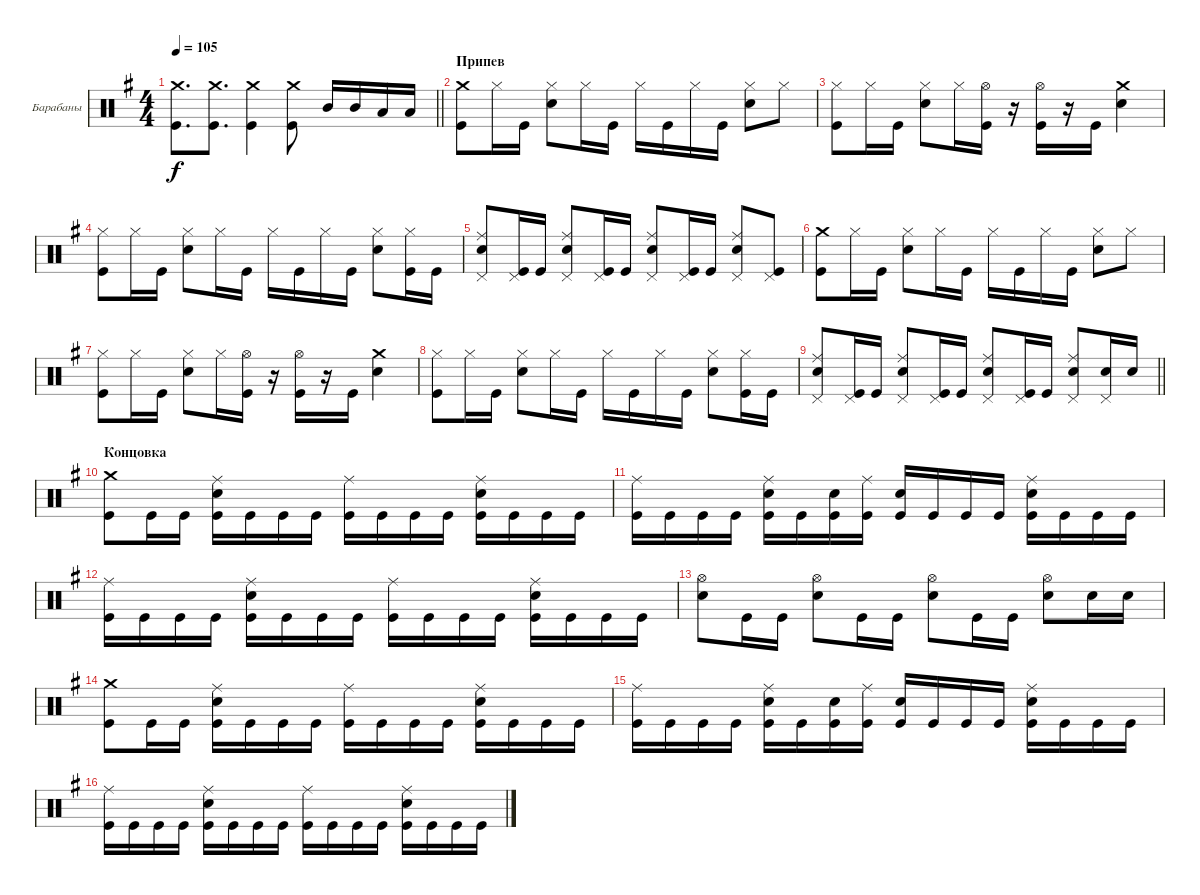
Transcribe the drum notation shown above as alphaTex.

\bracketExtendMode groupsimilarinstruments
\firstSystemTrackNameMode fullname
\otherSystemsTrackNameMode fullname
\firstSystemTrackNameOrientation horizontal
\otherSystemsTrackNameOrientation horizontal
\chordDiagramsInScore
\track ("Барабаны" "Drums") {instrument percussion}
\staff {score}
\articulation defaults
\ts (4 4)
\tempo 105
\clef neutral
\barLineRight lightlight
\ks eminor
("Kick (hit)" "Crash medium (hit)").8{d dy f} ("Kick (hit)" "Crash medium (hit)").8{d} ("Kick (hit)" "Crash medium (hit)").4 ("Kick (hit)" "Crash medium (hit)").8 "Mid Tom (hit)".16 "Mid Tom (hit)".16 "Low Tom (hit)".16 "Low Tom (hit)".16 |
\section ("" "Припев")
("Kick (hit)" "Crash medium (hit)").8 "Hi-Hat (closed)".16 "Kick (hit)".16 ("Snare (hit) 2" "Hi-Hat (closed)").8 "Hi-Hat (closed)".16 "Kick (hit)".16 "Hi-Hat (closed)".16 "Kick (hit)".16 "Hi-Hat (closed)".16 "Kick (hit)".16 ("Snare (hit) 2" "Hi-Hat (closed)").8 "Hi-Hat (closed)".8 |
("Kick (hit)" "Hi-Hat (closed)").8 "Hi-Hat (closed)".16 "Kick (hit)".16 ("Snare (hit) 2" "Hi-Hat (closed)").8 "Hi-Hat (closed)".16 ("Kick (hit)" "Hi-Hat (open)").16 r.16 ("Kick (hit)" "Hi-Hat (open)").16 r.16 "Kick (hit)".16 ("Snare (hit) 2" "Crash medium (hit)").4 |
("Kick (hit)" "Hi-Hat (closed)").8 "Hi-Hat (closed)".16 "Kick (hit)".16 ("Snare (hit) 2" "Hi-Hat (closed)").8 "Hi-Hat (closed)".16 "Kick (hit)".16 "Hi-Hat (closed)".16 "Kick (hit)".16 "Hi-Hat (closed)".16 "Kick (hit)".16 ("Snare (hit) 2" "Hi-Hat (closed)").8 ("Hi-Hat (closed)" "Kick (hit)").16 "Kick (hit)".16 |
("Snare (hit) 2" "Ride (middle)" "Pedal Hi-Hat (hit)").8 ("Kick (hit)" "Pedal Hi-Hat (hit)").16 "Kick (hit)".16 ("Snare (hit) 2" "Ride (middle)" "Pedal Hi-Hat (hit)").8 ("Kick (hit)" "Pedal Hi-Hat (hit)").16 "Kick (hit)".16 ("Snare (hit) 2" "Ride (middle)" "Pedal Hi-Hat (hit)").8 ("Kick (hit)" "Pedal Hi-Hat (hit)").16 "Kick (hit)".16 ("Snare (hit) 2" "Ride (middle)" "Pedal Hi-Hat (hit)").8 ("Pedal Hi-Hat (hit)" "Kick (hit)").8 |
("Kick (hit)" "Crash medium (hit)").8 "Hi-Hat (closed)".16 "Kick (hit)".16 ("Snare (hit) 2" "Hi-Hat (closed)").8 "Hi-Hat (closed)".16 "Kick (hit)".16 "Hi-Hat (closed)".16 "Kick (hit)".16 "Hi-Hat (closed)".16 "Kick (hit)".16 ("Snare (hit) 2" "Hi-Hat (closed)").8 "Hi-Hat (closed)".8 |
("Kick (hit)" "Hi-Hat (closed)").8 "Hi-Hat (closed)".16 "Kick (hit)".16 ("Snare (hit) 2" "Hi-Hat (closed)").8 "Hi-Hat (closed)".16 ("Kick (hit)" "Hi-Hat (open)").16 r.16 ("Kick (hit)" "Hi-Hat (open)").16 r.16 "Kick (hit)".16 ("Snare (hit) 2" "Crash medium (hit)").4 |
("Kick (hit)" "Hi-Hat (closed)").8 "Hi-Hat (closed)".16 "Kick (hit)".16 ("Snare (hit) 2" "Hi-Hat (closed)").8 "Hi-Hat (closed)".16 "Kick (hit)".16 "Hi-Hat (closed)".16 "Kick (hit)".16 "Hi-Hat (closed)".16 "Kick (hit)".16 ("Snare (hit) 2" "Hi-Hat (closed)").8 ("Hi-Hat (closed)" "Kick (hit)").16 "Kick (hit)".16 |
\barLineRight lightlight
("Snare (hit) 2" "Ride (middle)" "Pedal Hi-Hat (hit)").8 ("Kick (hit)" "Pedal Hi-Hat (hit)").16 "Kick (hit)".16 ("Snare (hit) 2" "Ride (middle)" "Pedal Hi-Hat (hit)").8 ("Kick (hit)" "Pedal Hi-Hat (hit)").16 "Kick (hit)".16 ("Snare (hit) 2" "Ride (middle)" "Pedal Hi-Hat (hit)").8 ("Kick (hit)" "Pedal Hi-Hat (hit)").16 "Kick (hit)".16 ("Snare (hit) 2" "Ride (middle)" "Pedal Hi-Hat (hit)").8 ("Pedal Hi-Hat (hit)" "Snare (hit) 2").16 "Snare (hit) 2".16 |
\section ("" "Концовка")
("Kick (hit)" "Crash medium (hit)").8 "Kick (hit)".16 "Kick (hit)".16 ("Kick (hit)" "Snare (hit) 2" "Ride (middle)").16 "Kick (hit)".16 "Kick (hit)".16 "Kick (hit)".16 ("Kick (hit)" "Ride (middle)").16 "Kick (hit)".16 "Kick (hit)".16 "Kick (hit)".16 ("Kick (hit)" "Snare (hit) 2" "Ride (middle)").16 "Kick (hit)".16 "Kick (hit)".16 "Kick (hit)".16 |
("Kick (hit)" "Ride (middle)").16 "Kick (hit)".16 "Kick (hit)".16 "Kick (hit)".16 ("Kick (hit)" "Snare (hit) 2" "Ride (middle)").16 "Kick (hit)".16 ("Kick (hit)" "Snare (hit) 2").16 ("Kick (hit)" "Ride (middle)").16 ("Kick (hit)" "Snare (hit) 2").16 "Kick (hit)".16 "Kick (hit)".16 "Kick (hit)".16 ("Kick (hit)" "Snare (hit) 2" "Ride (middle)").16 "Kick (hit)".16 "Kick (hit)".16 "Kick (hit)".16 |
("Kick (hit)" "Ride (middle)").16 "Kick (hit)".16 "Kick (hit)".16 "Kick (hit)".16 ("Kick (hit)" "Snare (hit) 2" "Ride (middle)").16 "Kick (hit)".16 "Kick (hit)".16 "Kick (hit)".16 ("Kick (hit)" "Ride (middle)").16 "Kick (hit)".16 "Kick (hit)".16 "Kick (hit)".16 ("Kick (hit)" "Snare (hit) 2" "Ride (middle)").16 "Kick (hit)".16 "Kick (hit)".16 "Kick (hit)".16 |
("Snare (hit) 2" "Hi-Hat (open)").8 "Kick (hit)".16 "Kick (hit)".16 ("Snare (hit) 2" "Hi-Hat (open)").8 "Kick (hit)".16 "Kick (hit)".16 ("Snare (hit) 2" "Hi-Hat (open)").8 "Kick (hit)".16 "Kick (hit)".16 ("Snare (hit) 2" "Hi-Hat (open)").8 "Snare (hit) 2".16 "Snare (hit) 2".16 |
("Kick (hit)" "Crash medium (hit)").8 "Kick (hit)".16 "Kick (hit)".16 ("Kick (hit)" "Snare (hit) 2" "Ride (middle)").16 "Kick (hit)".16 "Kick (hit)".16 "Kick (hit)".16 ("Kick (hit)" "Ride (middle)").16 "Kick (hit)".16 "Kick (hit)".16 "Kick (hit)".16 ("Kick (hit)" "Snare (hit) 2" "Ride (middle)").16 "Kick (hit)".16 "Kick (hit)".16 "Kick (hit)".16 |
("Kick (hit)" "Ride (middle)").16 "Kick (hit)".16 "Kick (hit)".16 "Kick (hit)".16 ("Kick (hit)" "Snare (hit) 2" "Ride (middle)").16 "Kick (hit)".16 ("Kick (hit)" "Snare (hit) 2").16 ("Kick (hit)" "Ride (middle)").16 ("Kick (hit)" "Snare (hit) 2").16 "Kick (hit)".16 "Kick (hit)".16 "Kick (hit)".16 ("Kick (hit)" "Snare (hit) 2" "Ride (middle)").16 "Kick (hit)".16 "Kick (hit)".16 "Kick (hit)".16 |
("Kick (hit)" "Ride (middle)").16 "Kick (hit)".16 "Kick (hit)".16 "Kick (hit)".16 ("Kick (hit)" "Snare (hit) 2" "Ride (middle)").16 "Kick (hit)".16 "Kick (hit)".16 "Kick (hit)".16 ("Kick (hit)" "Ride (middle)").16 "Kick (hit)".16 "Kick (hit)".16 "Kick (hit)".16 ("Kick (hit)" "Snare (hit) 2" "Ride (middle)").16 "Kick (hit)".16 "Kick (hit)".16 "Kick (hit)".16
